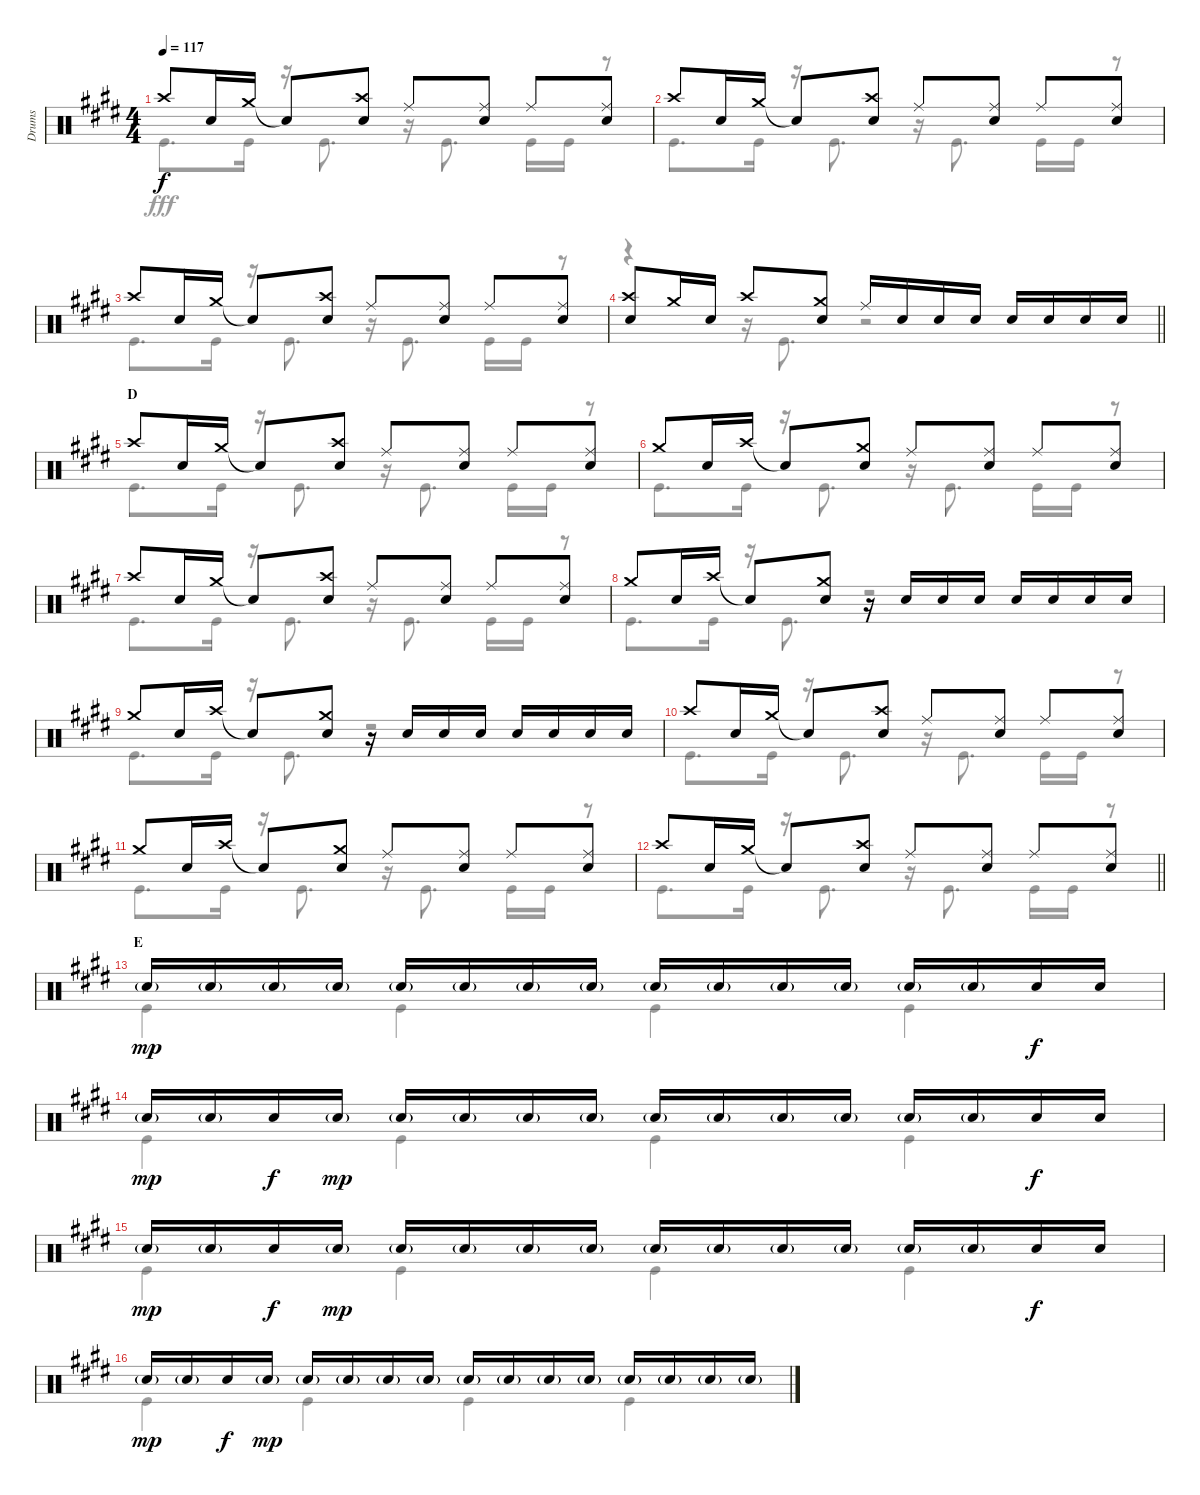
\track ("Drums" "Drums") {instrument percussion}
\staff {score}
\articulation defaults
\voice
\ts (4 4)
\tempo 117
\clef neutral
\ks e "Crash high (hit)".8{dy f} "Snare (hit) 2".16 "Crash medium (hit)".16 "Snare (hit)"{t}.8
("Crash high (hit)" "Snare (hit) 2").8 "Ride (middle)".8 ("Ride (middle)" "Snare (hit) 2").8 "Ride (middle)".8 ("Ride (middle)" "Snare (hit) 2").8 |
"Crash high (hit)".8 "Snare (hit) 2".16 "Crash medium (hit)".16 "Snare (hit)"{t}.8 ("Crash high (hit)" "Snare (hit) 2").8 "Ride (middle)".8 ("Ride (middle)" "Snare (hit) 2").8 "Ride (middle)".8 ("Ride (middle)" "Snare (hit) 2").8 |
"Crash high (hit)".8 "Snare (hit) 2".16 "Crash medium (hit)".16 "Snare (hit)"{t}.8 ("Crash high (hit)" "Snare (hit) 2").8 "Ride (middle)".8 ("Ride (middle)" "Snare (hit) 2").8 "Ride (middle)".8 ("Ride (middle)" "Snare (hit) 2").8 |
\barLineRight lightlight
("Crash high (hit)" "Snare (hit) 2").8 "Crash medium (hit)".16 "Snare (hit) 2".16 "Crash high (hit)".8 ("Crash medium (hit)" "Snare (hit) 2").8 "Ride (middle)".16 "Snare (hit) 2".16 "Snare (hit) 2".16 "Snare (hit) 2".16 "Snare (hit) 2".16 "Snare (hit) 2".16 "Snare (hit) 2".16 "Snare (hit) 2".16 |
\section ("" "D")
"Crash high (hit)".8 "Snare (hit) 2".16 "Crash medium (hit)".16 "Snare (hit)"{t}.8 ("Crash high (hit)" "Snare (hit) 2").8 "Ride (middle)".8 ("Ride (middle)" "Snare (hit) 2").8 "Ride (middle)".8 ("Ride (middle)" "Snare (hit) 2").8 |
"Crash medium (hit)".8 "Snare (hit) 2".16 "Crash high (hit)".16 "Snare (hit)"{t}.8 ("Crash medium (hit)" "Snare (hit) 2").8 "Ride (middle)".8 ("Ride (middle)" "Snare (hit) 2").8 "Ride (middle)".8 ("Ride (middle)" "Snare (hit) 2").8 |
"Crash high (hit)".8 "Snare (hit) 2".16 "Crash medium (hit)".16 "Snare (hit)"{t}.8 ("Crash high (hit)" "Snare (hit) 2").8 "Ride (middle)".8 ("Ride (middle)" "Snare (hit) 2").8 "Ride (middle)".8 ("Ride (middle)" "Snare (hit) 2").8 |
"Crash medium (hit)".8 "Snare (hit) 2".16 "Crash high (hit)".16 "Snare (hit)"{t}.8 ("Crash medium (hit)" "Snare (hit) 2").8 r.16 "Snare (hit) 2".16 "Snare (hit) 2".16 "Snare (hit) 2".16 "Snare (hit) 2".16 "Snare (hit) 2".16 "Snare (hit) 2".16 "Snare (hit) 2".16 |
"Crash medium (hit)".8 "Snare (hit) 2".16 "Crash high (hit)".16 "Snare (hit)"{t}.8 ("Crash medium (hit)" "Snare (hit) 2").8 r.16 "Snare (hit) 2".16 "Snare (hit) 2".16 "Snare (hit) 2".16 "Snare (hit) 2".16 "Snare (hit) 2".16 "Snare (hit) 2".16 "Snare (hit) 2".16 |
"Crash high (hit)".8 "Snare (hit) 2".16 "Crash medium (hit)".16 "Snare (hit)"{t}.8 ("Crash high (hit)" "Snare (hit) 2").8 "Ride (middle)".8 ("Ride (middle)" "Snare (hit) 2").8 "Ride (middle)".8 ("Ride (middle)" "Snare (hit) 2").8 |
"Crash medium (hit)".8 "Snare (hit) 2".16 "Crash high (hit)".16 "Snare (hit)"{t}.8 ("Crash medium (hit)" "Snare (hit) 2").8 "Ride (middle)".8 ("Ride (middle)" "Snare (hit) 2").8 "Ride (middle)".8 ("Ride (middle)" "Snare (hit) 2").8 |
\barLineRight lightlight "Crash high (hit)".8 "Snare (hit) 2".16 "Crash medium (hit)".16 "Snare (hit)"{t}.8
("Crash high (hit)" "Snare (hit) 2").8 "Ride (middle)".8 ("Ride (middle)" "Snare (hit) 2").8 "Ride (middle)".8 ("Ride (middle)" "Snare (hit) 2").8 |
\section ("" "E")
"Snare (hit) 2"{g}.16{dy mp} "Snare (hit) 2"{g}.16 "Snare (hit) 2"{g}.16 "Snare (hit) 2"{g}.16 "Snare (hit) 2"{g}.16 "Snare (hit) 2"{g}.16 "Snare (hit) 2"{g}.16 "Snare (hit) 2"{g}.16 "Snare (hit) 2"{g}.16 "Snare (hit) 2"{g}.16 "Snare (hit) 2"{g}.16 "Snare (hit) 2"{g}.16 "Snare (hit) 2"{g}.16 "Snare (hit) 2"{g}.16 "Snare (hit) 2".16{dy f} "Snare (hit) 2".16 |
"Snare (hit) 2"{g}.16{dy mp} "Snare (hit) 2"{g}.16 "Snare (hit) 2".16{dy f} "Snare (hit) 2"{g}.16{dy mp} "Snare (hit) 2"{g}.16 "Snare (hit) 2"{g}.16 "Snare (hit) 2"{g}.16 "Snare (hit) 2"{g}.16 "Snare (hit) 2"{g}.16 "Snare (hit) 2"{g}.16 "Snare (hit) 2"{g}.16 "Snare (hit) 2"{g}.16 "Snare (hit) 2"{g}.16 "Snare (hit) 2"{g}.16 "Snare (hit) 2".16{dy f} "Snare (hit) 2".16 |
"Snare (hit) 2"{g}.16{dy mp} "Snare (hit) 2"{g}.16 "Snare (hit) 2".16{dy f} "Snare (hit) 2"{g}.16{dy mp} "Snare (hit) 2"{g}.16 "Snare (hit) 2"{g}.16 "Snare (hit) 2"{g}.16 "Snare (hit) 2"{g}.16 "Snare (hit) 2"{g}.16 "Snare (hit) 2"{g}.16 "Snare (hit) 2"{g}.16 "Snare (hit) 2"{g}.16 "Snare (hit) 2"{g}.16 "Snare (hit) 2"{g}.16 "Snare (hit) 2".16{dy f} "Snare (hit) 2".16 |
"Snare (hit) 2"{g}.16{dy mp} "Snare (hit) 2"{g}.16 "Snare (hit) 2".16{dy f} "Snare (hit) 2"{g}.16{dy mp} "Snare (hit) 2"{g}.16 "Snare (hit) 2"{g}.16 "Snare (hit) 2"{g}.16 "Snare (hit) 2"{g}.16 "Snare (hit) 2"{g}.16 "Snare (hit) 2"{g}.16 "Snare (hit) 2"{g}.16 "Snare (hit) 2"{g}.16 "Snare (hit) 2"{g}.16 "Snare (hit) 2"{g}.16 "Snare (hit) 2"{g}.16 "Snare (hit) 2"{g}.16
\voice
\clef neutral
\ottava regular
\simile none
\ks e "Kick (hit)".8{d dy fff} "Kick (hit)".16
r.16 "Kick (hit)".8{d} r.16 "Kick (hit)".8{d} "Kick (hit)".16 "Kick (hit)".16 r.8 |
"Kick (hit)".8{d} "Kick (hit)".16 r.16 "Kick (hit)".8{d} r.16 "Kick (hit)".8{d} "Kick (hit)".16 "Kick (hit)".16 r.8 |
"Kick (hit)".8{d} "Kick (hit)".16 r.16 "Kick (hit)".8{d} r.16 "Kick (hit)".8{d} "Kick (hit)".16 "Kick (hit)".16 r.8 |
\barLineRight lightlight
r.4 r.16 "Kick (hit)".8{d} r.2 |
"Kick (hit)".8{d} "Kick (hit)".16 r.16 "Kick (hit)".8{d} r.16 "Kick (hit)".8{d} "Kick (hit)".16 "Kick (hit)".16 r.8 |
"Kick (hit)".8{d} "Kick (hit)".16 r.16 "Kick (hit)".8{d} r.16 "Kick (hit)".8{d} "Kick (hit)".16 "Kick (hit)".16 r.8 |
"Kick (hit)".8{d} "Kick (hit)".16 r.16 "Kick (hit)".8{d} r.16 "Kick (hit)".8{d} "Kick (hit)".16 "Kick (hit)".16 r.8 |
"Kick (hit)".8{d} "Kick (hit)".16 r.16 "Kick (hit)".8{d} r.2 |
"Kick (hit)".8{d} "Kick (hit)".16 r.16 "Kick (hit)".8{d} r.2 |
"Kick (hit)".8{d} "Kick (hit)".16 r.16 "Kick (hit)".8{d} r.16 "Kick (hit)".8{d} "Kick (hit)".16 "Kick (hit)".16 r.8 |
"Kick (hit)".8{d} "Kick (hit)".16 r.16 "Kick (hit)".8{d} r.16 "Kick (hit)".8{d} "Kick (hit)".16 "Kick (hit)".16 r.8 |
\barLineRight lightlight "Kick (hit)".8{d} "Kick (hit)".16
r.16 "Kick (hit)".8{d} r.16 "Kick (hit)".8{d} "Kick (hit)".16 "Kick (hit)".16 r.8 |
"Kick (hit)".4 "Kick (hit)".4 "Kick (hit)".4 "Kick (hit)".4 |
"Kick (hit)".4 "Kick (hit)".4 "Kick (hit)".4 "Kick (hit)".4 |
"Kick (hit)".4 "Kick (hit)".4 "Kick (hit)".4 "Kick (hit)".4 |
"Kick (hit)".4 "Kick (hit)".4 "Kick (hit)".4 "Kick (hit)".4
